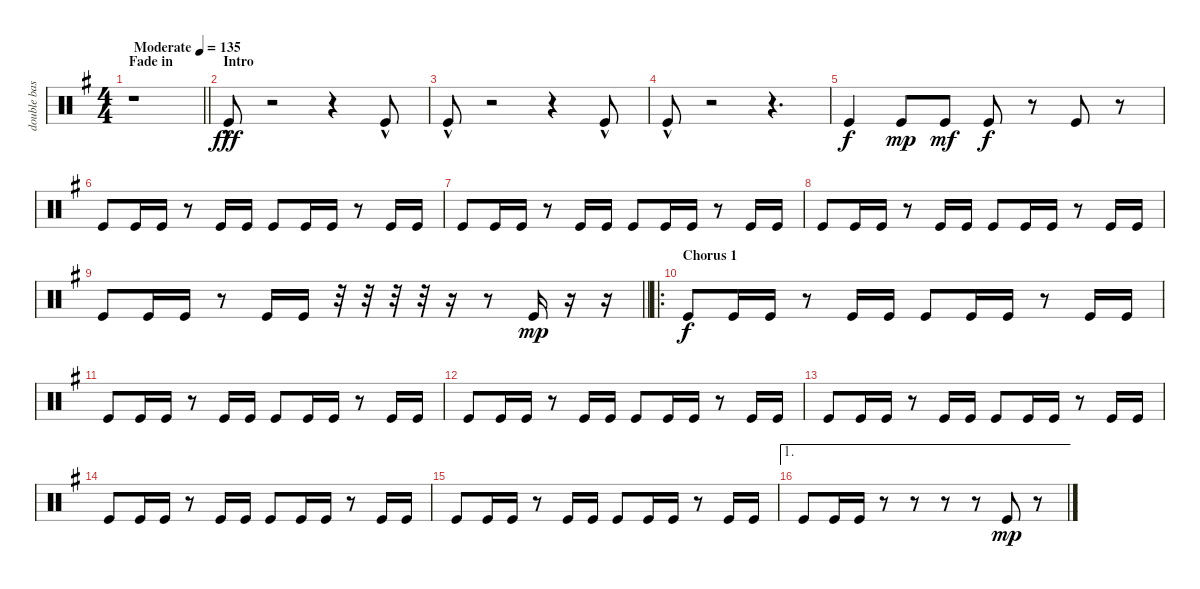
\track ("double bass" "double bas") {instrument percussion}
\staff {score}
\articulation defaults
\ts (4 4)
\section ("" "Fade in")
\tempo (135 "Moderate")
\clef neutral
\barLineRight lightlight
\ks eminor
r.1{dy fff} |
\section ("" "Intro")
"Kick (hit)"{hac}.8 r.2 r.4 "Kick (hit)"{hac}.8 |
"Kick (hit)"{hac}.8 r.2 r.4 "Kick (hit)"{hac}.8 |
"Kick (hit)"{hac}.8 r.2 r.4{d} |
"Kick (hit)".4{dy f} "Kick (hit)".8{dy mp} "Kick (hit)".8{dy mf} "Kick (hit)".8{dy f} r.8 "Kick (hit)".8 r.8 |
"Kick (hit)".8 "Kick (hit)".16 "Kick (hit)".16 r.8 "Kick (hit)".16 "Kick (hit)".16 "Kick (hit)".8 "Kick (hit)".16 "Kick (hit)".16 r.8 "Kick (hit)".16 "Kick (hit)".16 |
"Kick (hit)".8 "Kick (hit)".16 "Kick (hit)".16 r.8 "Kick (hit)".16 "Kick (hit)".16 "Kick (hit)".8 "Kick (hit)".16 "Kick (hit)".16 r.8 "Kick (hit)".16 "Kick (hit)".16 |
"Kick (hit)".8 "Kick (hit)".16 "Kick (hit)".16 r.8 "Kick (hit)".16 "Kick (hit)".16 "Kick (hit)".8 "Kick (hit)".16 "Kick (hit)".16 r.8 "Kick (hit)".16 "Kick (hit)".16 |
\barLineRight lightlight "Kick (hit)".8 "Kick (hit)".16 "Kick (hit)".16
r.8 "Kick (hit)".16 "Kick (hit)".16 r.32 r.32 r.32 r.32 r.16 r.8 "Kick (hit)".16{dy mp} r.16 r.16 |
\ro
\section ("" "Chorus 1")
"Kick (hit)".8{dy f} "Kick (hit)".16 "Kick (hit)".16 r.8 "Kick (hit)".16 "Kick (hit)".16 "Kick (hit)".8 "Kick (hit)".16 "Kick (hit)".16 r.8 "Kick (hit)".16 "Kick (hit)".16 |
"Kick (hit)".8 "Kick (hit)".16 "Kick (hit)".16 r.8 "Kick (hit)".16 "Kick (hit)".16 "Kick (hit)".8 "Kick (hit)".16 "Kick (hit)".16 r.8 "Kick (hit)".16 "Kick (hit)".16 |
"Kick (hit)".8 "Kick (hit)".16 "Kick (hit)".16 r.8 "Kick (hit)".16 "Kick (hit)".16 "Kick (hit)".8 "Kick (hit)".16 "Kick (hit)".16 r.8 "Kick (hit)".16 "Kick (hit)".16 |
"Kick (hit)".8 "Kick (hit)".16 "Kick (hit)".16 r.8 "Kick (hit)".16 "Kick (hit)".16 "Kick (hit)".8 "Kick (hit)".16 "Kick (hit)".16 r.8 "Kick (hit)".16 "Kick (hit)".16 |
"Kick (hit)".8 "Kick (hit)".16 "Kick (hit)".16 r.8 "Kick (hit)".16 "Kick (hit)".16 "Kick (hit)".8 "Kick (hit)".16 "Kick (hit)".16 r.8 "Kick (hit)".16 "Kick (hit)".16 |
"Kick (hit)".8 "Kick (hit)".16 "Kick (hit)".16 r.8 "Kick (hit)".16 "Kick (hit)".16 "Kick (hit)".8 "Kick (hit)".16 "Kick (hit)".16 r.8 "Kick (hit)".16 "Kick (hit)".16 |
\ae 1 "Kick (hit)".8 "Kick (hit)".16 "Kick (hit)".16
r.8 r.8 r.8 r.8 "Kick (hit)".8{dy mp} r.8
